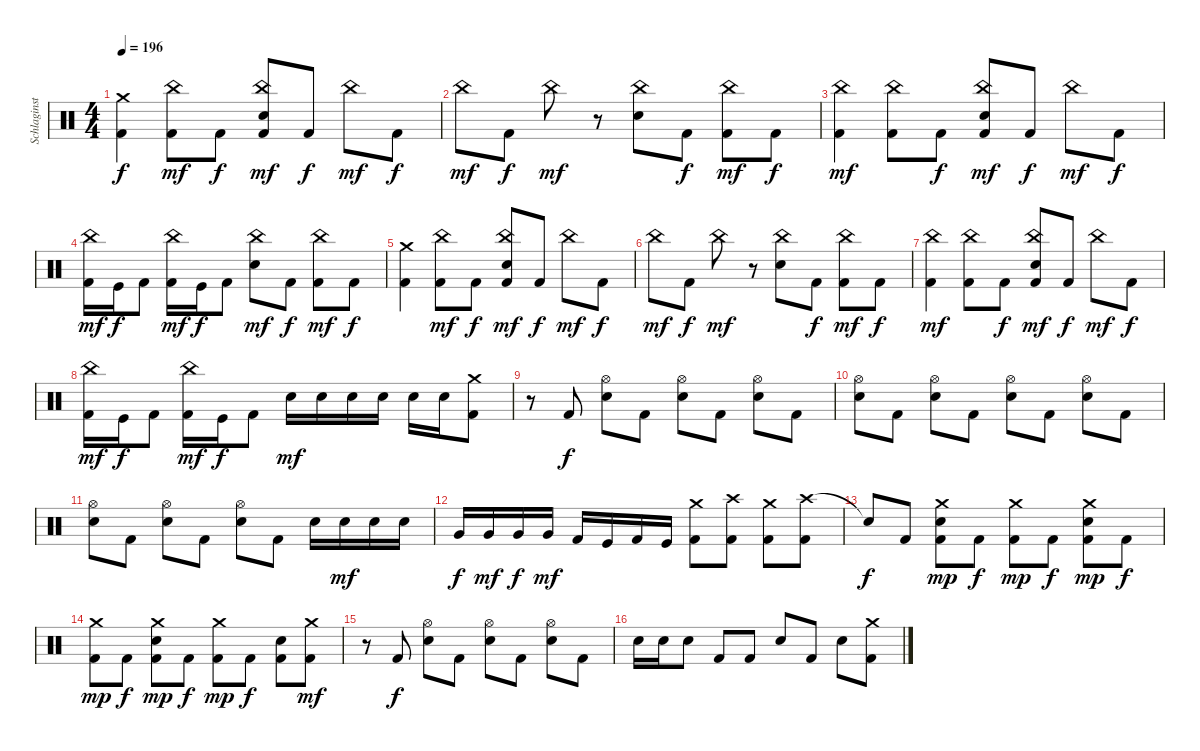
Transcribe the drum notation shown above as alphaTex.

\track ("Schlaginstrumente - Auswahl" "Schlaginst") {instrument percussion}
\staff
\articulation defaults
\ts (4 4)
\tempo 196
\clef neutral
\ks c
("Crash medium (hit)" "Kick (hit) 2").4{dy f} ("China (hit)" "Kick (hit) 2").8{dy mf} "Kick (hit) 2".8{dy f} ("China (hit)" "Electric Snare (hit)" "Kick (hit) 2").8{dy mf} "Kick (hit) 2".8{dy f} "China (hit)".8{dy mf} "Kick (hit) 2".8{dy f} |
"China (hit)".8{dy mf} "Kick (hit) 2".8{dy f} "China (hit)".8{dy mf} r.8 ("China (hit)" "Electric Snare (hit)").8 "Kick (hit) 2".8{dy f} ("China (hit)" "Kick (hit) 2").8{dy mf} "Kick (hit) 2".8{dy f} |
("China (hit)" "Kick (hit) 2").4{dy mf} ("China (hit)" "Kick (hit) 2").8 "Kick (hit) 2".8{dy f} ("China (hit)" "Electric Snare (hit)" "Kick (hit) 2").8{dy mf} "Kick (hit) 2".8{dy f} "China (hit)".8{dy mf} "Kick (hit) 2".8{dy f} |
("China (hit)" "Kick (hit) 2").16{dy mf} "Kick (hit)".16{dy f} "Kick (hit) 2".8 ("China (hit)" "Kick (hit) 2").16{dy mf} "Kick (hit)".16{dy f} "Kick (hit) 2".8 ("China (hit)" "Electric Snare (hit)").8{dy mf} "Kick (hit) 2".8{dy f} ("China (hit)" "Kick (hit) 2").8{dy mf} "Kick (hit) 2".8{dy f} |
("Crash medium (hit)" "Kick (hit) 2").4 ("China (hit)" "Kick (hit) 2").8{dy mf} "Kick (hit) 2".8{dy f} ("China (hit)" "Electric Snare (hit)" "Kick (hit) 2").8{dy mf} "Kick (hit) 2".8{dy f} "China (hit)".8{dy mf} "Kick (hit) 2".8{dy f} |
"China (hit)".8{dy mf} "Kick (hit) 2".8{dy f} "China (hit)".8{dy mf} r.8 ("China (hit)" "Electric Snare (hit)").8 "Kick (hit) 2".8{dy f} ("China (hit)" "Kick (hit) 2").8{dy mf} "Kick (hit) 2".8{dy f} |
("China (hit)" "Kick (hit) 2").4{dy mf} ("China (hit)" "Kick (hit) 2").8 "Kick (hit) 2".8{dy f} ("China (hit)" "Electric Snare (hit)" "Kick (hit) 2").8{dy mf} "Kick (hit) 2".8{dy f} "China (hit)".8{dy mf} "Kick (hit) 2".8{dy f} |
("China (hit)" "Kick (hit) 2").16{dy mf} "Kick (hit)".16{dy f} "Kick (hit) 2".8 ("China (hit)" "Kick (hit) 2").16{dy mf} "Kick (hit)".16{dy f} "Kick (hit) 2".8 "Electric Snare (hit)".16{dy mf} "Electric Snare (hit)".16 "Electric Snare (hit)".16 "Electric Snare (hit)".16 "Electric Snare (hit)".16 "Electric Snare (hit)".16 ("Crash medium (hit)" "Kick (hit) 2").8 |
r.8 "Kick (hit) 2".8{dy f} ("Hi-Hat (open)" "Electric Snare (hit)").8 "Kick (hit) 2".8 ("Hi-Hat (open)" "Electric Snare (hit)").8 "Kick (hit) 2".8 ("Hi-Hat (open)" "Electric Snare (hit)").8 "Kick (hit) 2".8 |
("Hi-Hat (open)" "Electric Snare (hit)").8 "Kick (hit) 2".8 ("Hi-Hat (open)" "Electric Snare (hit)").8 "Kick (hit) 2".8 ("Hi-Hat (open)" "Electric Snare (hit)").8 "Kick (hit) 2".8 ("Hi-Hat (open)" "Electric Snare (hit)").8 "Kick (hit) 2".8 |
("Hi-Hat (open)" "Electric Snare (hit)").8 "Kick (hit) 2".8 ("Hi-Hat (open)" "Electric Snare (hit)").8 "Kick (hit) 2".8 ("Hi-Hat (open)" "Electric Snare (hit)").8 "Kick (hit) 2".8 "Electric Snare (hit)".16 "Electric Snare (hit)".16{dy mf} "Electric Snare (hit)".16 "Electric Snare (hit)".16 |
"Very Low Tom (hit)".16{dy f} "Very Low Tom (hit)".16{dy mf} "Very Low Tom (hit)".16{dy f} "Very Low Tom (hit)".16{dy mf} "Kick (hit) 2".16 "Kick (hit)".16 "Kick (hit) 2".16 "Kick (hit)".16 ("Crash medium (hit)" "Kick (hit) 2").8 ("Crash high (hit)" "Kick (hit) 2").8 ("Crash medium (hit)" "Kick (hit) 2").8 ("Crash high (hit)" "Kick (hit) 2").8 |
"Snare (hit)"{t}.8{dy f} "Kick (hit) 2".8 ("Crash medium (hit)" "Electric Snare (hit)" "Kick (hit) 2").8{dy mp} "Kick (hit) 2".8{dy f} ("Crash medium (hit)" "Kick (hit) 2").8{dy mp} "Kick (hit) 2".8{dy f} ("Crash medium (hit)" "Electric Snare (hit)" "Kick (hit) 2").8{dy mp} "Kick (hit) 2".8{dy f} |
("Crash medium (hit)" "Kick (hit) 2").8{dy mp} "Kick (hit) 2".8{dy f} ("Crash medium (hit)" "Electric Snare (hit)" "Kick (hit) 2").8{dy mp} "Kick (hit) 2".8{dy f} ("Crash medium (hit)" "Kick (hit) 2").8{dy mp} "Kick (hit) 2".8{dy f} ("Electric Snare (hit)" "Kick (hit) 2").8 ("Crash medium (hit)" "Kick (hit) 2").8{dy mf} |
r.8 "Kick (hit) 2".8{dy f} ("Hi-Hat (open)" "Electric Snare (hit)").8 "Kick (hit) 2".8 ("Hi-Hat (open)" "Electric Snare (hit)").8 "Kick (hit) 2".8 ("Hi-Hat (open)" "Electric Snare (hit)").8 "Kick (hit) 2".8 |
"Electric Snare (hit)".16 "Electric Snare (hit)".16 "Electric Snare (hit)".8 "Kick (hit) 2".8 "Kick (hit) 2".8 "Electric Snare (hit)".8 "Kick (hit) 2".8 "Electric Snare (hit)".8 ("Crash medium (hit)" "Kick (hit) 2").8
